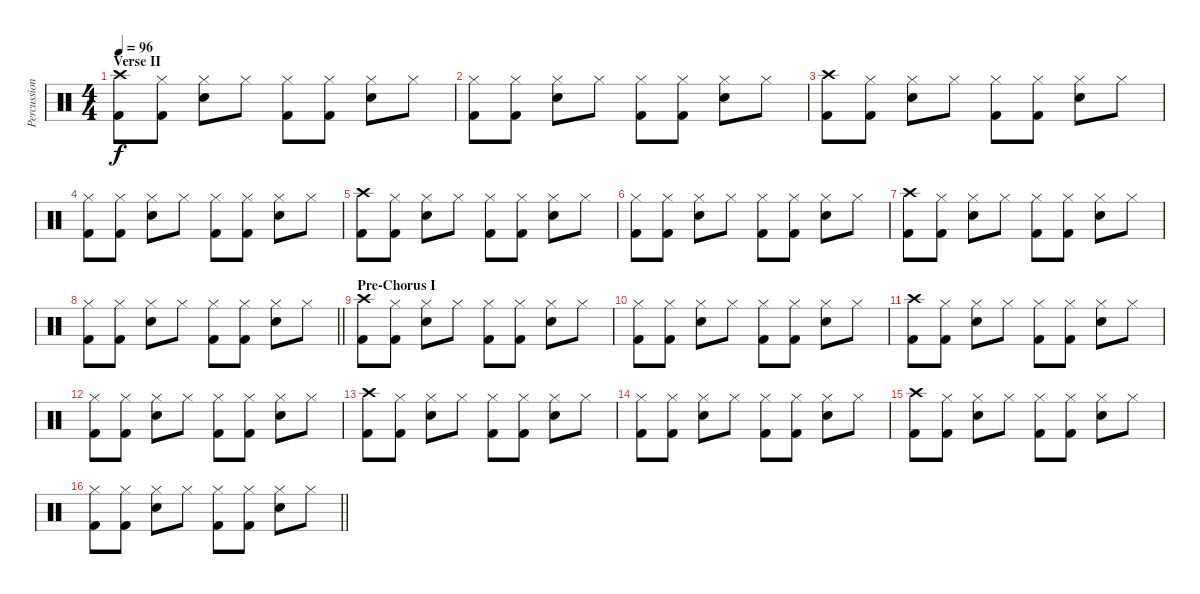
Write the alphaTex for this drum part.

\track ("Percussions" "Percussion") {instrument percussion}
\staff {score}
\articulation defaults
\ts (4 4)
\section ("" "Verse II")
\tempo 96
\clef neutral
\ks c
("Crash high (hit)" "Kick (hit) 2").8{dy f} ("Hi-Hat (closed)" "Kick (hit) 2").8 ("Hi-Hat (closed)" "Snare (hit) 2").8 "Hi-Hat (closed)".8 ("Hi-Hat (closed)" "Kick (hit) 2").8 ("Hi-Hat (closed)" "Kick (hit) 2").8 ("Hi-Hat (closed)" "Snare (hit) 2").8 "Hi-Hat (closed)".8 |
("Hi-Hat (closed)" "Kick (hit) 2").8 ("Hi-Hat (closed)" "Kick (hit) 2").8 ("Hi-Hat (closed)" "Snare (hit) 2").8 "Hi-Hat (closed)".8 ("Hi-Hat (closed)" "Kick (hit) 2").8 ("Hi-Hat (closed)" "Kick (hit) 2").8 ("Hi-Hat (closed)" "Snare (hit) 2").8 "Hi-Hat (closed)".8 |
("Crash high (hit)" "Kick (hit) 2").8 ("Hi-Hat (closed)" "Kick (hit) 2").8 ("Hi-Hat (closed)" "Snare (hit) 2").8 "Hi-Hat (closed)".8 ("Hi-Hat (closed)" "Kick (hit) 2").8 ("Hi-Hat (closed)" "Kick (hit) 2").8 ("Hi-Hat (closed)" "Snare (hit) 2").8 "Hi-Hat (closed)".8 |
("Hi-Hat (closed)" "Kick (hit) 2").8 ("Hi-Hat (closed)" "Kick (hit) 2").8 ("Hi-Hat (closed)" "Snare (hit) 2").8 "Hi-Hat (closed)".8 ("Hi-Hat (closed)" "Kick (hit) 2").8 ("Hi-Hat (closed)" "Kick (hit) 2").8 ("Hi-Hat (closed)" "Snare (hit) 2").8 "Hi-Hat (closed)".8 |
("Crash high (hit)" "Kick (hit) 2").8 ("Hi-Hat (closed)" "Kick (hit) 2").8 ("Hi-Hat (closed)" "Snare (hit) 2").8 "Hi-Hat (closed)".8 ("Hi-Hat (closed)" "Kick (hit) 2").8 ("Hi-Hat (closed)" "Kick (hit) 2").8 ("Hi-Hat (closed)" "Snare (hit) 2").8 "Hi-Hat (closed)".8 |
("Hi-Hat (closed)" "Kick (hit) 2").8 ("Hi-Hat (closed)" "Kick (hit) 2").8 ("Hi-Hat (closed)" "Snare (hit) 2").8 "Hi-Hat (closed)".8 ("Hi-Hat (closed)" "Kick (hit) 2").8 ("Hi-Hat (closed)" "Kick (hit) 2").8 ("Hi-Hat (closed)" "Snare (hit) 2").8 "Hi-Hat (closed)".8 |
("Crash high (hit)" "Kick (hit) 2").8 ("Hi-Hat (closed)" "Kick (hit) 2").8 ("Hi-Hat (closed)" "Snare (hit) 2").8 "Hi-Hat (closed)".8 ("Hi-Hat (closed)" "Kick (hit) 2").8 ("Hi-Hat (closed)" "Kick (hit) 2").8 ("Hi-Hat (closed)" "Snare (hit) 2").8 "Hi-Hat (closed)".8 |
\barLineRight lightlight
("Hi-Hat (closed)" "Kick (hit) 2").8 ("Hi-Hat (closed)" "Kick (hit) 2").8 ("Hi-Hat (closed)" "Snare (hit) 2").8 "Hi-Hat (closed)".8 ("Hi-Hat (closed)" "Kick (hit) 2").8 ("Hi-Hat (closed)" "Kick (hit) 2").8 ("Hi-Hat (closed)" "Snare (hit) 2").8 "Hi-Hat (closed)".8 |
\section ("" "Pre-Chorus I")
("Crash high (hit)" "Kick (hit) 2").8 ("Hi-Hat (closed)" "Kick (hit) 2").8 ("Hi-Hat (closed)" "Snare (hit) 2").8 "Hi-Hat (closed)".8 ("Hi-Hat (closed)" "Kick (hit) 2").8 ("Hi-Hat (closed)" "Kick (hit) 2").8 ("Hi-Hat (closed)" "Snare (hit) 2").8 "Hi-Hat (closed)".8 |
("Hi-Hat (closed)" "Kick (hit) 2").8 ("Hi-Hat (closed)" "Kick (hit) 2").8 ("Hi-Hat (closed)" "Snare (hit) 2").8 "Hi-Hat (closed)".8 ("Hi-Hat (closed)" "Kick (hit) 2").8 ("Hi-Hat (closed)" "Kick (hit) 2").8 ("Hi-Hat (closed)" "Snare (hit) 2").8 "Hi-Hat (closed)".8 |
("Crash high (hit)" "Kick (hit) 2").8 ("Hi-Hat (closed)" "Kick (hit) 2").8 ("Hi-Hat (closed)" "Snare (hit) 2").8 "Hi-Hat (closed)".8 ("Hi-Hat (closed)" "Kick (hit) 2").8 ("Hi-Hat (closed)" "Kick (hit) 2").8 ("Hi-Hat (closed)" "Snare (hit) 2").8 "Hi-Hat (closed)".8 |
("Hi-Hat (closed)" "Kick (hit) 2").8 ("Hi-Hat (closed)" "Kick (hit) 2").8 ("Hi-Hat (closed)" "Snare (hit) 2").8 "Hi-Hat (closed)".8 ("Hi-Hat (closed)" "Kick (hit) 2").8 ("Hi-Hat (closed)" "Kick (hit) 2").8 ("Hi-Hat (closed)" "Snare (hit) 2").8 "Hi-Hat (closed)".8 |
("Crash high (hit)" "Kick (hit) 2").8 ("Hi-Hat (closed)" "Kick (hit) 2").8 ("Hi-Hat (closed)" "Snare (hit) 2").8 "Hi-Hat (closed)".8 ("Hi-Hat (closed)" "Kick (hit) 2").8 ("Hi-Hat (closed)" "Kick (hit) 2").8 ("Hi-Hat (closed)" "Snare (hit) 2").8 "Hi-Hat (closed)".8 |
("Hi-Hat (closed)" "Kick (hit) 2").8 ("Hi-Hat (closed)" "Kick (hit) 2").8 ("Hi-Hat (closed)" "Snare (hit) 2").8 "Hi-Hat (closed)".8 ("Hi-Hat (closed)" "Kick (hit) 2").8 ("Hi-Hat (closed)" "Kick (hit) 2").8 ("Hi-Hat (closed)" "Snare (hit) 2").8 "Hi-Hat (closed)".8 |
("Crash high (hit)" "Kick (hit) 2").8 ("Hi-Hat (closed)" "Kick (hit) 2").8 ("Hi-Hat (closed)" "Snare (hit) 2").8 "Hi-Hat (closed)".8 ("Hi-Hat (closed)" "Kick (hit) 2").8 ("Hi-Hat (closed)" "Kick (hit) 2").8 ("Hi-Hat (closed)" "Snare (hit) 2").8 "Hi-Hat (closed)".8 |
\barLineRight lightlight
("Hi-Hat (closed)" "Kick (hit) 2").8 ("Hi-Hat (closed)" "Kick (hit) 2").8 ("Hi-Hat (closed)" "Snare (hit) 2").8 "Hi-Hat (closed)".8 ("Hi-Hat (closed)" "Kick (hit) 2").8 ("Hi-Hat (closed)" "Kick (hit) 2").8 ("Hi-Hat (closed)" "Snare (hit) 2").8 "Hi-Hat (closed)".8
